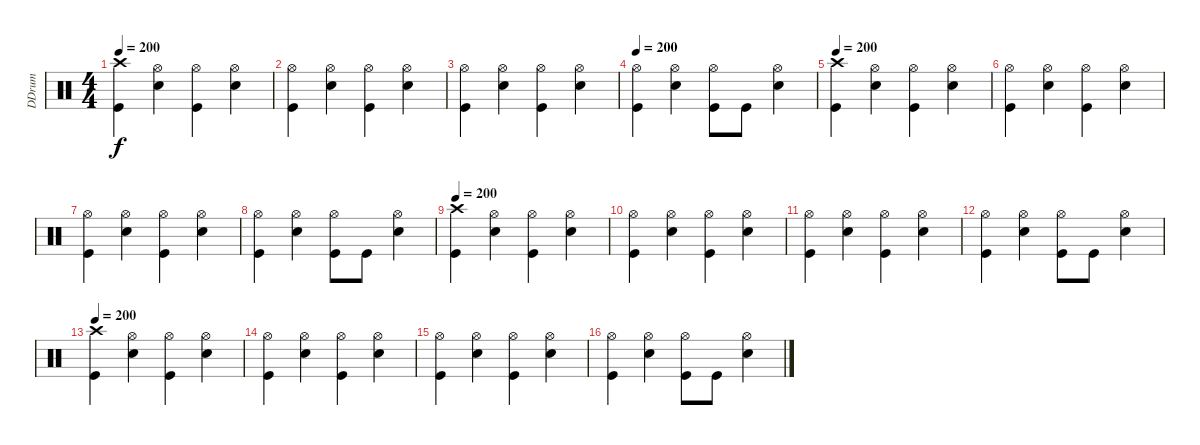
\track ("DDrum" "DDrum") {instrument percussion}
\staff {score}
\articulation defaults
\ts (4 4)
\tempo 200
\clef neutral
\ks c
("Crash high (hit)" "Kick (hit)").4{dy f} ("Hi-Hat (open)" "Electric Snare (hit)").4 ("Hi-Hat (open)" "Kick (hit)").4 ("Hi-Hat (open)" "Electric Snare (hit)").4 |
("Hi-Hat (open)" "Kick (hit)").4 ("Hi-Hat (open)" "Electric Snare (hit)").4 ("Hi-Hat (open)" "Kick (hit)").4 ("Hi-Hat (open)" "Electric Snare (hit)").4 |
("Hi-Hat (open)" "Kick (hit)").4 ("Hi-Hat (open)" "Electric Snare (hit)").4 ("Hi-Hat (open)" "Kick (hit)").4 ("Hi-Hat (open)" "Electric Snare (hit)").4 |
\tempo 200
("Hi-Hat (open)" "Kick (hit)").4 ("Hi-Hat (open)" "Electric Snare (hit)").4 ("Hi-Hat (open)" "Kick (hit)").8 "Kick (hit)".8 ("Hi-Hat (open)" "Electric Snare (hit)").4 |
\tempo 200
("Crash high (hit)" "Kick (hit)").4 ("Hi-Hat (open)" "Electric Snare (hit)").4 ("Hi-Hat (open)" "Kick (hit)").4 ("Hi-Hat (open)" "Electric Snare (hit)").4 |
("Hi-Hat (open)" "Kick (hit)").4 ("Hi-Hat (open)" "Electric Snare (hit)").4 ("Hi-Hat (open)" "Kick (hit)").4 ("Hi-Hat (open)" "Electric Snare (hit)").4 |
("Hi-Hat (open)" "Kick (hit)").4 ("Hi-Hat (open)" "Electric Snare (hit)").4 ("Hi-Hat (open)" "Kick (hit)").4 ("Hi-Hat (open)" "Electric Snare (hit)").4 |
("Hi-Hat (open)" "Kick (hit)").4 ("Hi-Hat (open)" "Electric Snare (hit)").4 ("Hi-Hat (open)" "Kick (hit)").8 "Kick (hit)".8 ("Hi-Hat (open)" "Electric Snare (hit)").4 |
\tempo 200
("Crash high (hit)" "Kick (hit)").4 ("Hi-Hat (open)" "Electric Snare (hit)").4 ("Hi-Hat (open)" "Kick (hit)").4 ("Hi-Hat (open)" "Electric Snare (hit)").4 |
("Hi-Hat (open)" "Kick (hit)").4 ("Hi-Hat (open)" "Electric Snare (hit)").4 ("Hi-Hat (open)" "Kick (hit)").4 ("Hi-Hat (open)" "Electric Snare (hit)").4 |
("Hi-Hat (open)" "Kick (hit)").4 ("Hi-Hat (open)" "Electric Snare (hit)").4 ("Hi-Hat (open)" "Kick (hit)").4 ("Hi-Hat (open)" "Electric Snare (hit)").4 |
("Hi-Hat (open)" "Kick (hit)").4 ("Hi-Hat (open)" "Electric Snare (hit)").4 ("Hi-Hat (open)" "Kick (hit)").8 "Kick (hit)".8 ("Hi-Hat (open)" "Electric Snare (hit)").4 |
\tempo 200
("Crash high (hit)" "Kick (hit)").4 ("Hi-Hat (open)" "Electric Snare (hit)").4 ("Hi-Hat (open)" "Kick (hit)").4 ("Hi-Hat (open)" "Electric Snare (hit)").4 |
("Hi-Hat (open)" "Kick (hit)").4 ("Hi-Hat (open)" "Electric Snare (hit)").4 ("Hi-Hat (open)" "Kick (hit)").4 ("Hi-Hat (open)" "Electric Snare (hit)").4 |
("Hi-Hat (open)" "Kick (hit)").4 ("Hi-Hat (open)" "Electric Snare (hit)").4 ("Hi-Hat (open)" "Kick (hit)").4 ("Hi-Hat (open)" "Electric Snare (hit)").4 |
("Hi-Hat (open)" "Kick (hit)").4 ("Hi-Hat (open)" "Electric Snare (hit)").4 ("Hi-Hat (open)" "Kick (hit)").8 "Kick (hit)".8 ("Hi-Hat (open)" "Electric Snare (hit)").4
